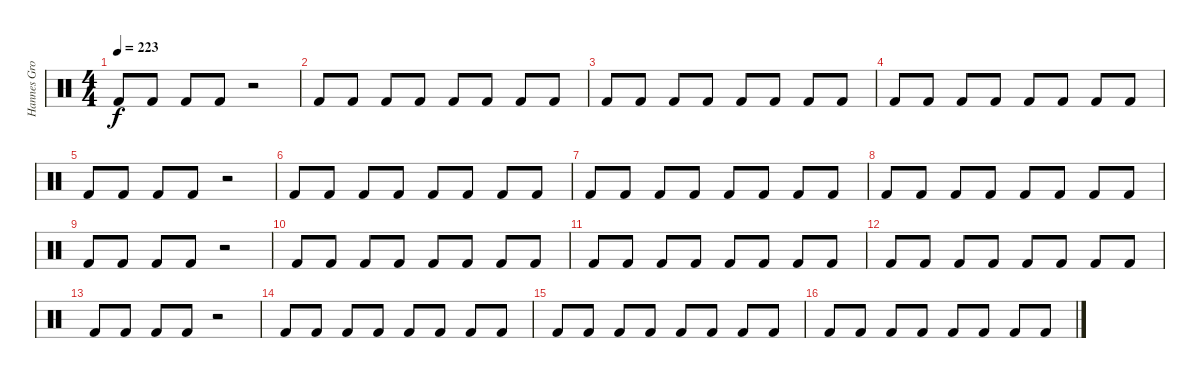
\track ("Hannes Grossmann" "Hannes Gro") {instrument percussion}
\staff {score}
\articulation defaults
\ts (4 4)
\tempo 223
\clef neutral
\ks c "Kick (hit) 2".8{dy f} "Kick (hit) 2".8 "Kick (hit) 2".8 "Kick (hit) 2".8
r.2 |
"Kick (hit) 2".8 "Kick (hit) 2".8 "Kick (hit) 2".8 "Kick (hit) 2".8 "Kick (hit) 2".8 "Kick (hit) 2".8 "Kick (hit) 2".8 "Kick (hit) 2".8 |
"Kick (hit) 2".8 "Kick (hit) 2".8 "Kick (hit) 2".8 "Kick (hit) 2".8 "Kick (hit) 2".8 "Kick (hit) 2".8 "Kick (hit) 2".8 "Kick (hit) 2".8 |
"Kick (hit) 2".8 "Kick (hit) 2".8 "Kick (hit) 2".8 "Kick (hit) 2".8 "Kick (hit) 2".8 "Kick (hit) 2".8 "Kick (hit) 2".8 "Kick (hit) 2".8 |
"Kick (hit) 2".8 "Kick (hit) 2".8 "Kick (hit) 2".8 "Kick (hit) 2".8 r.2 |
"Kick (hit) 2".8 "Kick (hit) 2".8 "Kick (hit) 2".8 "Kick (hit) 2".8 "Kick (hit) 2".8 "Kick (hit) 2".8 "Kick (hit) 2".8 "Kick (hit) 2".8 |
"Kick (hit) 2".8 "Kick (hit) 2".8 "Kick (hit) 2".8 "Kick (hit) 2".8 "Kick (hit) 2".8 "Kick (hit) 2".8 "Kick (hit) 2".8 "Kick (hit) 2".8 |
"Kick (hit) 2".8 "Kick (hit) 2".8 "Kick (hit) 2".8 "Kick (hit) 2".8 "Kick (hit) 2".8 "Kick (hit) 2".8 "Kick (hit) 2".8 "Kick (hit) 2".8 |
"Kick (hit) 2".8 "Kick (hit) 2".8 "Kick (hit) 2".8 "Kick (hit) 2".8 r.2 |
"Kick (hit) 2".8 "Kick (hit) 2".8 "Kick (hit) 2".8 "Kick (hit) 2".8 "Kick (hit) 2".8 "Kick (hit) 2".8 "Kick (hit) 2".8 "Kick (hit) 2".8 |
"Kick (hit) 2".8 "Kick (hit) 2".8 "Kick (hit) 2".8 "Kick (hit) 2".8 "Kick (hit) 2".8 "Kick (hit) 2".8 "Kick (hit) 2".8 "Kick (hit) 2".8 |
"Kick (hit) 2".8 "Kick (hit) 2".8 "Kick (hit) 2".8 "Kick (hit) 2".8 "Kick (hit) 2".8 "Kick (hit) 2".8 "Kick (hit) 2".8 "Kick (hit) 2".8 |
"Kick (hit) 2".8 "Kick (hit) 2".8 "Kick (hit) 2".8 "Kick (hit) 2".8 r.2 |
"Kick (hit) 2".8 "Kick (hit) 2".8 "Kick (hit) 2".8 "Kick (hit) 2".8 "Kick (hit) 2".8 "Kick (hit) 2".8 "Kick (hit) 2".8 "Kick (hit) 2".8 |
"Kick (hit) 2".8 "Kick (hit) 2".8 "Kick (hit) 2".8 "Kick (hit) 2".8 "Kick (hit) 2".8 "Kick (hit) 2".8 "Kick (hit) 2".8 "Kick (hit) 2".8 |
"Kick (hit) 2".8 "Kick (hit) 2".8 "Kick (hit) 2".8 "Kick (hit) 2".8 "Kick (hit) 2".8 "Kick (hit) 2".8 "Kick (hit) 2".8 "Kick (hit) 2".8
